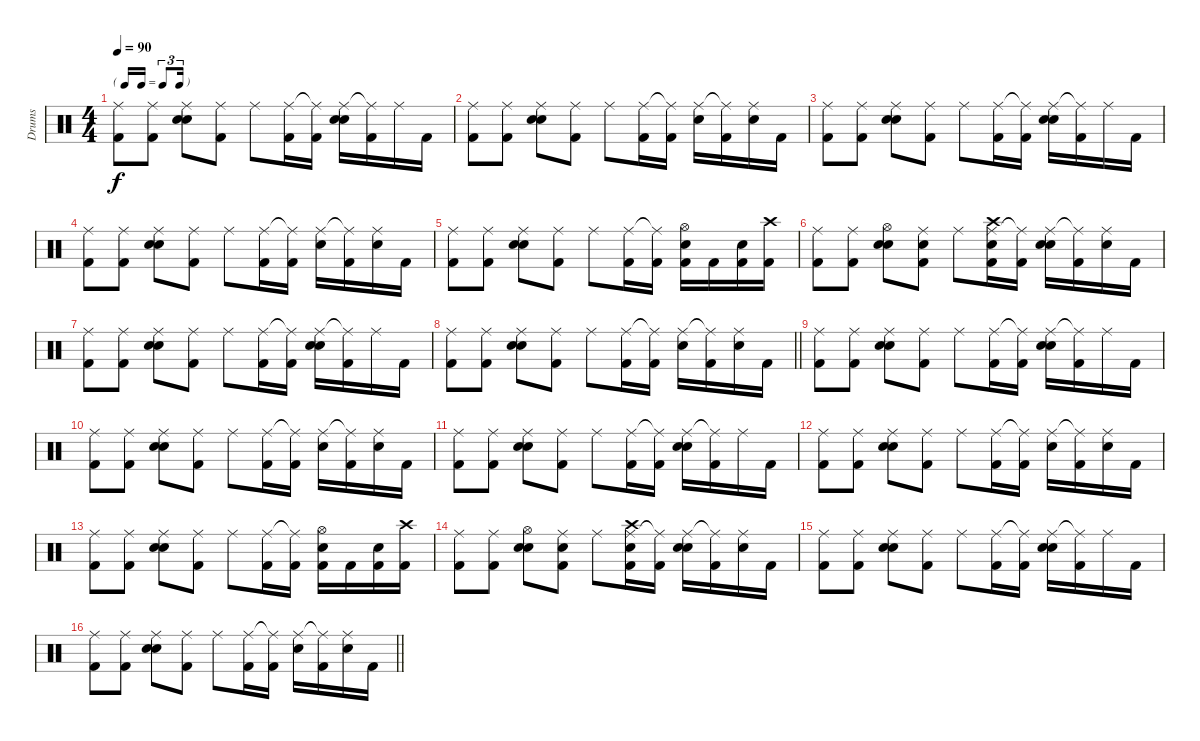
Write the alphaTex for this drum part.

\track ("Drums" "Drums") {instrument percussion}
\staff {score}
\articulation defaults
\ts (4 4)
\tf triplet16th
\tempo 90
\clef neutral
\ks c
("Ride (middle)" "Kick (hit) 2").8{dy f} ("Ride (middle)" "Kick (hit) 2").8 ("Ride (middle)" "Hand Clap (hit)" "Snare (hit) 2").8 ("Ride (middle)" "Kick (hit) 2").8 "Ride (middle)".8 ("Ride (middle)" "Kick (hit) 2").16 ("Ride (middle)"{t} "Kick (hit) 2").16 ("Ride (middle)" "Hand Clap (hit)" "Snare (hit) 2").16 ("Ride (middle)"{t} "Kick (hit) 2").16 "Ride (middle)".16 "Kick (hit) 2".16 |
("Ride (middle)" "Kick (hit) 2").8 ("Ride (middle)" "Kick (hit) 2").8 ("Ride (middle)" "Hand Clap (hit)" "Snare (hit) 2").8 ("Ride (middle)" "Kick (hit) 2").8 "Ride (middle)".8 ("Ride (middle)" "Kick (hit) 2").16 ("Ride (middle)"{t} "Kick (hit) 2").16 ("Ride (middle)" "Hand Clap (hit)").16 ("Ride (middle)"{t} "Kick (hit) 2").16 ("Ride (middle)" "Snare (hit) 2").16 "Kick (hit) 2".16 |
("Ride (middle)" "Kick (hit) 2").8 ("Ride (middle)" "Kick (hit) 2").8 ("Ride (middle)" "Hand Clap (hit)" "Snare (hit) 2").8 ("Ride (middle)" "Kick (hit) 2").8 "Ride (middle)".8 ("Ride (middle)" "Kick (hit) 2").16 ("Ride (middle)"{t} "Kick (hit) 2").16 ("Ride (middle)" "Hand Clap (hit)" "Snare (hit) 2").16 ("Ride (middle)"{t} "Kick (hit) 2").16 "Ride (middle)".16 "Kick (hit) 2".16 |
("Ride (middle)" "Kick (hit) 2").8 ("Ride (middle)" "Kick (hit) 2").8 ("Ride (middle)" "Hand Clap (hit)" "Snare (hit) 2").8 ("Ride (middle)" "Kick (hit) 2").8 "Ride (middle)".8 ("Ride (middle)" "Kick (hit) 2").16 ("Ride (middle)"{t} "Kick (hit) 2").16 ("Ride (middle)" "Hand Clap (hit)").16 ("Ride (middle)"{t} "Kick (hit) 2").16 ("Ride (middle)" "Snare (hit) 2").16 "Kick (hit) 2".16 |
("Ride (middle)" "Kick (hit) 2").8 ("Ride (middle)" "Kick (hit) 2").8 ("Ride (middle)" "Hand Clap (hit)" "Snare (hit) 2").8 ("Ride (middle)" "Kick (hit) 2").8 "Ride (middle)".8 ("Ride (middle)" "Kick (hit) 2").16 ("Ride (middle)"{t} "Kick (hit) 2").16 ("Hi-Hat (open)" "Snare (hit) 2" "Kick (hit) 2").16 "Kick (hit) 2".16 ("Snare (hit) 2" "Kick (hit) 2").16 ("Crash high (hit)" "Kick (hit) 2").16 |
("Ride (middle)" "Kick (hit) 2").8 ("Ride (middle)" "Kick (hit) 2").8 ("Hi-Hat (open)" "Hand Clap (hit)" "Snare (hit) 2").8 ("Ride (middle)" "Snare (hit) 2" "Kick (hit) 2").8 "Ride (middle)".8 ("Ride (middle)" "Crash high (hit)" "Snare (hit) 2" "Kick (hit) 2").16 ("Ride (middle)"{t} "Kick (hit) 2").16 ("Ride (middle)" "Hand Clap (hit)" "Snare (hit) 2").16 ("Ride (middle)"{t} "Kick (hit) 2").16 ("Ride (middle)" "Snare (hit) 2").16 "Kick (hit) 2".16 |
("Ride (middle)" "Kick (hit) 2").8 ("Ride (middle)" "Kick (hit) 2").8 ("Ride (middle)" "Hand Clap (hit)" "Snare (hit) 2").8 ("Ride (middle)" "Kick (hit) 2").8 "Ride (middle)".8 ("Ride (middle)" "Kick (hit) 2").16 ("Ride (middle)"{t} "Kick (hit) 2").16 ("Ride (middle)" "Hand Clap (hit)" "Snare (hit) 2").16 ("Ride (middle)"{t} "Kick (hit) 2").16 "Ride (middle)".16 "Kick (hit) 2".16 |
\barLineRight lightlight
("Ride (middle)" "Kick (hit) 2").8 ("Ride (middle)" "Kick (hit) 2").8 ("Ride (middle)" "Hand Clap (hit)" "Snare (hit) 2").8 ("Ride (middle)" "Kick (hit) 2").8 "Ride (middle)".8 ("Ride (middle)" "Kick (hit) 2").16 ("Ride (middle)"{t} "Kick (hit) 2").16 ("Ride (middle)" "Hand Clap (hit)").16 ("Ride (middle)"{t} "Kick (hit) 2").16 ("Ride (middle)" "Snare (hit) 2").16 "Kick (hit) 2".16 |
("Ride (middle)" "Kick (hit) 2").8 ("Ride (middle)" "Kick (hit) 2").8 ("Ride (middle)" "Hand Clap (hit)" "Snare (hit) 2").8 ("Ride (middle)" "Kick (hit) 2").8 "Ride (middle)".8 ("Ride (middle)" "Kick (hit) 2").16 ("Ride (middle)"{t} "Kick (hit) 2").16 ("Ride (middle)" "Hand Clap (hit)" "Snare (hit) 2").16 ("Ride (middle)"{t} "Kick (hit) 2").16 "Ride (middle)".16 "Kick (hit) 2".16 |
("Ride (middle)" "Kick (hit) 2").8 ("Ride (middle)" "Kick (hit) 2").8 ("Ride (middle)" "Hand Clap (hit)" "Snare (hit) 2").8 ("Ride (middle)" "Kick (hit) 2").8 "Ride (middle)".8 ("Ride (middle)" "Kick (hit) 2").16 ("Ride (middle)"{t} "Kick (hit) 2").16 ("Ride (middle)" "Hand Clap (hit)").16 ("Ride (middle)"{t} "Kick (hit) 2").16 ("Ride (middle)" "Snare (hit) 2").16 "Kick (hit) 2".16 |
("Ride (middle)" "Kick (hit) 2").8 ("Ride (middle)" "Kick (hit) 2").8 ("Ride (middle)" "Hand Clap (hit)" "Snare (hit) 2").8 ("Ride (middle)" "Kick (hit) 2").8 "Ride (middle)".8 ("Ride (middle)" "Kick (hit) 2").16 ("Ride (middle)"{t} "Kick (hit) 2").16 ("Ride (middle)" "Hand Clap (hit)" "Snare (hit) 2").16 ("Ride (middle)"{t} "Kick (hit) 2").16 "Ride (middle)".16 "Kick (hit) 2".16 |
("Ride (middle)" "Kick (hit) 2").8 ("Ride (middle)" "Kick (hit) 2").8 ("Ride (middle)" "Hand Clap (hit)" "Snare (hit) 2").8 ("Ride (middle)" "Kick (hit) 2").8 "Ride (middle)".8 ("Ride (middle)" "Kick (hit) 2").16 ("Ride (middle)"{t} "Kick (hit) 2").16 ("Ride (middle)" "Hand Clap (hit)").16 ("Ride (middle)"{t} "Kick (hit) 2").16 ("Ride (middle)" "Snare (hit) 2").16 "Kick (hit) 2".16 |
("Ride (middle)" "Kick (hit) 2").8 ("Ride (middle)" "Kick (hit) 2").8 ("Ride (middle)" "Hand Clap (hit)" "Snare (hit) 2").8 ("Ride (middle)" "Kick (hit) 2").8 "Ride (middle)".8 ("Ride (middle)" "Kick (hit) 2").16 ("Ride (middle)"{t} "Kick (hit) 2").16 ("Hi-Hat (open)" "Snare (hit) 2" "Kick (hit) 2").16 "Kick (hit) 2".16 ("Snare (hit) 2" "Kick (hit) 2").16 ("Crash high (hit)" "Kick (hit) 2").16 |
("Ride (middle)" "Kick (hit) 2").8 ("Ride (middle)" "Kick (hit) 2").8 ("Hi-Hat (open)" "Hand Clap (hit)" "Snare (hit) 2").8 ("Ride (middle)" "Snare (hit) 2" "Kick (hit) 2").8 "Ride (middle)".8 ("Ride (middle)" "Crash high (hit)" "Snare (hit) 2" "Kick (hit) 2").16 ("Ride (middle)"{t} "Kick (hit) 2").16 ("Ride (middle)" "Hand Clap (hit)" "Snare (hit) 2").16 ("Ride (middle)"{t} "Kick (hit) 2").16 ("Ride (middle)" "Snare (hit) 2").16 "Kick (hit) 2".16 |
("Ride (middle)" "Kick (hit) 2").8 ("Ride (middle)" "Kick (hit) 2").8 ("Ride (middle)" "Hand Clap (hit)" "Snare (hit) 2").8 ("Ride (middle)" "Kick (hit) 2").8 "Ride (middle)".8 ("Ride (middle)" "Kick (hit) 2").16 ("Ride (middle)"{t} "Kick (hit) 2").16 ("Ride (middle)" "Hand Clap (hit)" "Snare (hit) 2").16 ("Ride (middle)"{t} "Kick (hit) 2").16 "Ride (middle)".16 "Kick (hit) 2".16 |
\barLineRight lightlight
("Ride (middle)" "Kick (hit) 2").8 ("Ride (middle)" "Kick (hit) 2").8 ("Ride (middle)" "Hand Clap (hit)" "Snare (hit) 2").8 ("Ride (middle)" "Kick (hit) 2").8 "Ride (middle)".8 ("Ride (middle)" "Kick (hit) 2").16 ("Ride (middle)"{t} "Kick (hit) 2").16 ("Ride (middle)" "Hand Clap (hit)").16 ("Ride (middle)"{t} "Kick (hit) 2").16 ("Ride (middle)" "Snare (hit) 2").16 "Kick (hit) 2".16
